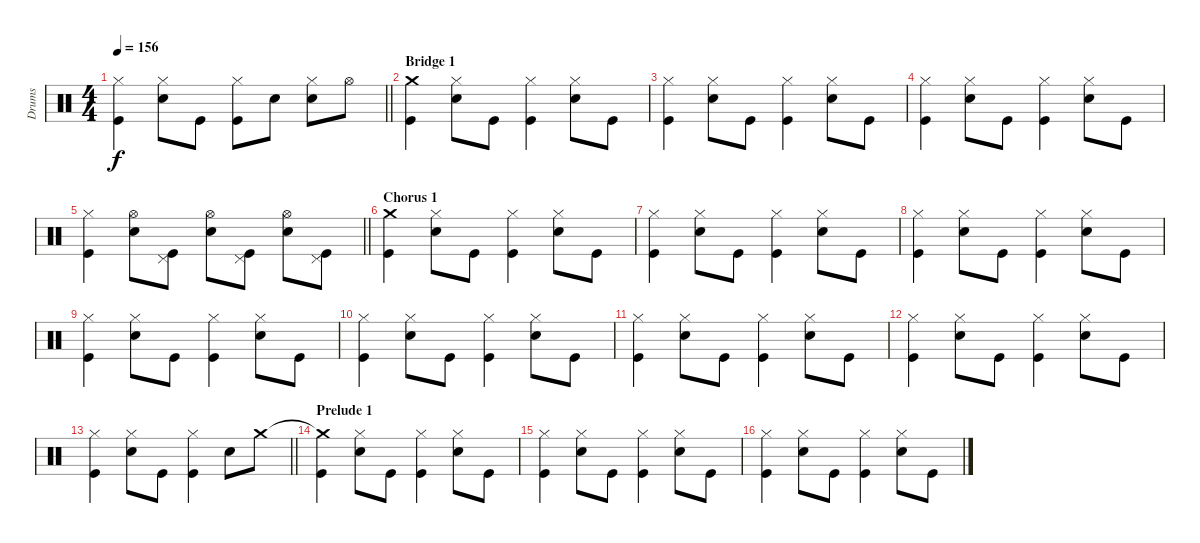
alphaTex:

\track ("Drums" "Drums") {instrument percussion}
\staff {score}
\articulation defaults
\ts (4 4)
\tempo 156
\clef neutral
\barLineRight lightlight
\ks c
("Hi-Hat (closed)" "Kick (hit)").4{dy f} ("Hi-Hat (closed)" "Snare (hit) 2").8 "Kick (hit)".8 ("Hi-Hat (closed)" "Kick (hit)").8 "Snare (hit) 2".8 ("Hi-Hat (closed)" "Snare (hit) 2").8 "Hi-Hat (open)".8 |
\section ("" "Bridge 1")
("Crash medium (hit)" "Kick (hit)").4 ("Hi-Hat (closed)" "Snare (hit) 2").8 "Kick (hit)".8 ("Hi-Hat (closed)" "Kick (hit)").4 ("Hi-Hat (closed)" "Snare (hit) 2").8 "Kick (hit)".8 |
("Hi-Hat (closed)" "Kick (hit)").4 ("Hi-Hat (closed)" "Snare (hit) 2").8 "Kick (hit)".8 ("Hi-Hat (closed)" "Kick (hit)").4 ("Hi-Hat (closed)" "Snare (hit) 2").8 "Kick (hit)".8 |
("Hi-Hat (closed)" "Kick (hit)").4 ("Hi-Hat (closed)" "Snare (hit) 2").8 "Kick (hit)".8 ("Hi-Hat (closed)" "Kick (hit)").4 ("Hi-Hat (closed)" "Snare (hit) 2").8 "Kick (hit)".8 |
\barLineRight lightlight
("Hi-Hat (closed)" "Kick (hit)").4 ("Hi-Hat (open)" "Snare (hit) 2").8 ("Pedal Hi-Hat (hit)" "Kick (hit)").8 ("Hi-Hat (open)" "Snare (hit) 2").8 ("Pedal Hi-Hat (hit)" "Kick (hit)").8 ("Hi-Hat (open)" "Snare (hit) 2").8 ("Pedal Hi-Hat (hit)" "Kick (hit)").8 |
\section ("" "Chorus 1")
("Crash medium (hit)" "Kick (hit)").4 ("Hi-Hat (closed)" "Snare (hit) 2").8 "Kick (hit)".8 ("Hi-Hat (closed)" "Kick (hit)").4 ("Hi-Hat (closed)" "Snare (hit) 2").8 "Kick (hit)".8 |
("Hi-Hat (closed)" "Kick (hit)").4 ("Hi-Hat (closed)" "Snare (hit) 2").8 "Kick (hit)".8 ("Hi-Hat (closed)" "Kick (hit)").4 ("Hi-Hat (closed)" "Snare (hit) 2").8 "Kick (hit)".8 |
("Hi-Hat (closed)" "Kick (hit)").4 ("Hi-Hat (closed)" "Snare (hit) 2").8 "Kick (hit)".8 ("Hi-Hat (closed)" "Kick (hit)").4 ("Hi-Hat (closed)" "Snare (hit) 2").8 "Kick (hit)".8 |
("Hi-Hat (closed)" "Kick (hit)").4 ("Hi-Hat (closed)" "Snare (hit) 2").8 "Kick (hit)".8 ("Hi-Hat (closed)" "Kick (hit)").4 ("Hi-Hat (closed)" "Snare (hit) 2").8 "Kick (hit)".8 |
("Hi-Hat (closed)" "Kick (hit)").4 ("Hi-Hat (closed)" "Snare (hit) 2").8 "Kick (hit)".8 ("Hi-Hat (closed)" "Kick (hit)").4 ("Hi-Hat (closed)" "Snare (hit) 2").8 "Kick (hit)".8 |
("Hi-Hat (closed)" "Kick (hit)").4 ("Hi-Hat (closed)" "Snare (hit) 2").8 "Kick (hit)".8 ("Hi-Hat (closed)" "Kick (hit)").4 ("Hi-Hat (closed)" "Snare (hit) 2").8 "Kick (hit)".8 |
("Hi-Hat (closed)" "Kick (hit)").4 ("Hi-Hat (closed)" "Snare (hit) 2").8 "Kick (hit)".8 ("Hi-Hat (closed)" "Kick (hit)").4 ("Hi-Hat (closed)" "Snare (hit) 2").8 "Kick (hit)".8 |
\barLineRight lightlight
("Hi-Hat (closed)" "Kick (hit)").4 ("Hi-Hat (closed)" "Snare (hit) 2").8 "Kick (hit)".8 ("Hi-Hat (closed)" "Kick (hit)").4 "Snare (hit) 2".8 "Crash medium (hit)".8 |
\section ("" "Prelude 1")
("Crash medium (hit)"{t} "Kick (hit)").4 ("Hi-Hat (closed)" "Snare (hit) 2").8 "Kick (hit)".8 ("Hi-Hat (closed)" "Kick (hit)").4 ("Hi-Hat (closed)" "Snare (hit) 2").8 "Kick (hit)".8 |
("Hi-Hat (closed)" "Kick (hit)").4 ("Hi-Hat (closed)" "Snare (hit) 2").8 "Kick (hit)".8 ("Hi-Hat (closed)" "Kick (hit)").4 ("Hi-Hat (closed)" "Snare (hit) 2").8 "Kick (hit)".8 |
("Hi-Hat (closed)" "Kick (hit)").4 ("Hi-Hat (closed)" "Snare (hit) 2").8 "Kick (hit)".8 ("Hi-Hat (closed)" "Kick (hit)").4 ("Hi-Hat (closed)" "Snare (hit) 2").8 "Kick (hit)".8
